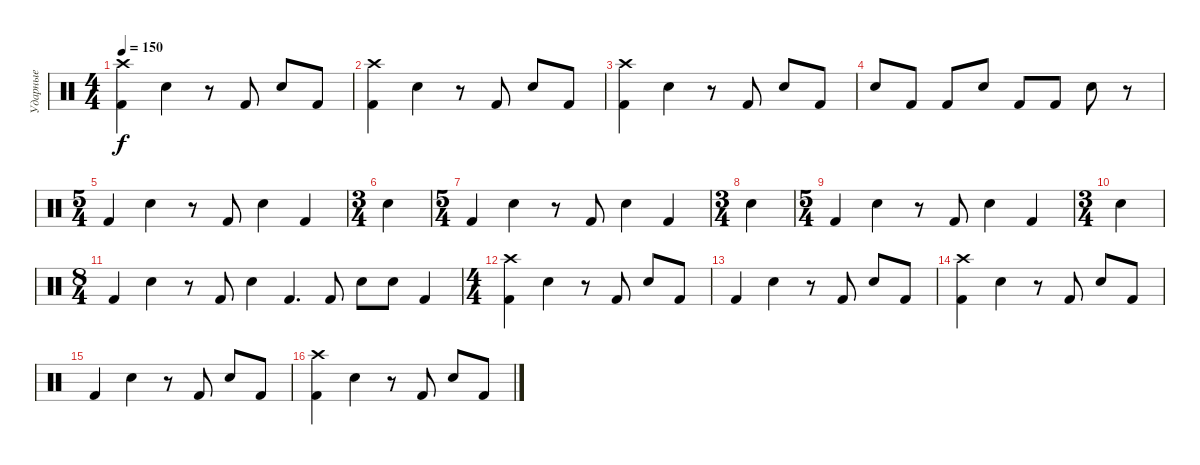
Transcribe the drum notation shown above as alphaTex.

\track ("Ударные" "Ударные") {instrument percussion}
\staff {score}
\articulation defaults
\ts (4 4)
\tempo 150
\clef neutral
\ks c
("Kick (hit) 2" "Crash high (hit)").4{dy f} "Electric Snare (hit)".4 r.8 "Kick (hit) 2".8 "Electric Snare (hit)".8 "Kick (hit) 2".8 |
("Kick (hit) 2" "Crash high (hit)").4 "Electric Snare (hit)".4 r.8 "Kick (hit) 2".8 "Electric Snare (hit)".8 "Kick (hit) 2".8 |
("Kick (hit) 2" "Crash high (hit)").4 "Electric Snare (hit)".4 r.8 "Kick (hit) 2".8 "Electric Snare (hit)".8 "Kick (hit) 2".8 |
"Electric Snare (hit)".8 "Kick (hit) 2".8 "Kick (hit) 2".8 "Electric Snare (hit)".8 "Kick (hit) 2".8 "Kick (hit) 2".8 "Electric Snare (hit)".8 r.8 |
\ts (5 4)
"Kick (hit) 2".4 "Electric Snare (hit)".4 r.8 "Kick (hit) 2".8 "Electric Snare (hit)".4 "Kick (hit) 2".4 |
\ts (3 4)
"Electric Snare (hit)".4 |
\ts (5 4)
"Kick (hit) 2".4 "Electric Snare (hit)".4 r.8 "Kick (hit) 2".8 "Electric Snare (hit)".4 "Kick (hit) 2".4 |
\ts (3 4)
"Electric Snare (hit)".4 |
\ts (5 4)
"Kick (hit) 2".4 "Electric Snare (hit)".4 r.8 "Kick (hit) 2".8 "Electric Snare (hit)".4 "Kick (hit) 2".4 |
\ts (3 4)
"Electric Snare (hit)".4 |
\ts (8 4)
"Kick (hit) 2".4 "Electric Snare (hit)".4 r.8 "Kick (hit) 2".8 "Electric Snare (hit)".4 "Kick (hit) 2".4{d} "Kick (hit) 2".8 "Electric Snare (hit)".8 "Electric Snare (hit)".8 "Kick (hit) 2".4 |
\ts (4 4)
("Kick (hit) 2" "Crash high (hit)").4 "Electric Snare (hit)".4 r.8 "Kick (hit) 2".8 "Electric Snare (hit)".8 "Kick (hit) 2".8 |
"Kick (hit) 2".4 "Electric Snare (hit)".4 r.8 "Kick (hit) 2".8 "Electric Snare (hit)".8 "Kick (hit) 2".8 |
("Kick (hit) 2" "Crash high (hit)").4 "Electric Snare (hit)".4 r.8 "Kick (hit) 2".8 "Electric Snare (hit)".8 "Kick (hit) 2".8 |
"Kick (hit) 2".4 "Electric Snare (hit)".4 r.8 "Kick (hit) 2".8 "Electric Snare (hit)".8 "Kick (hit) 2".8 |
("Kick (hit) 2" "Crash high (hit)").4 "Electric Snare (hit)".4 r.8 "Kick (hit) 2".8 "Electric Snare (hit)".8 "Kick (hit) 2".8
